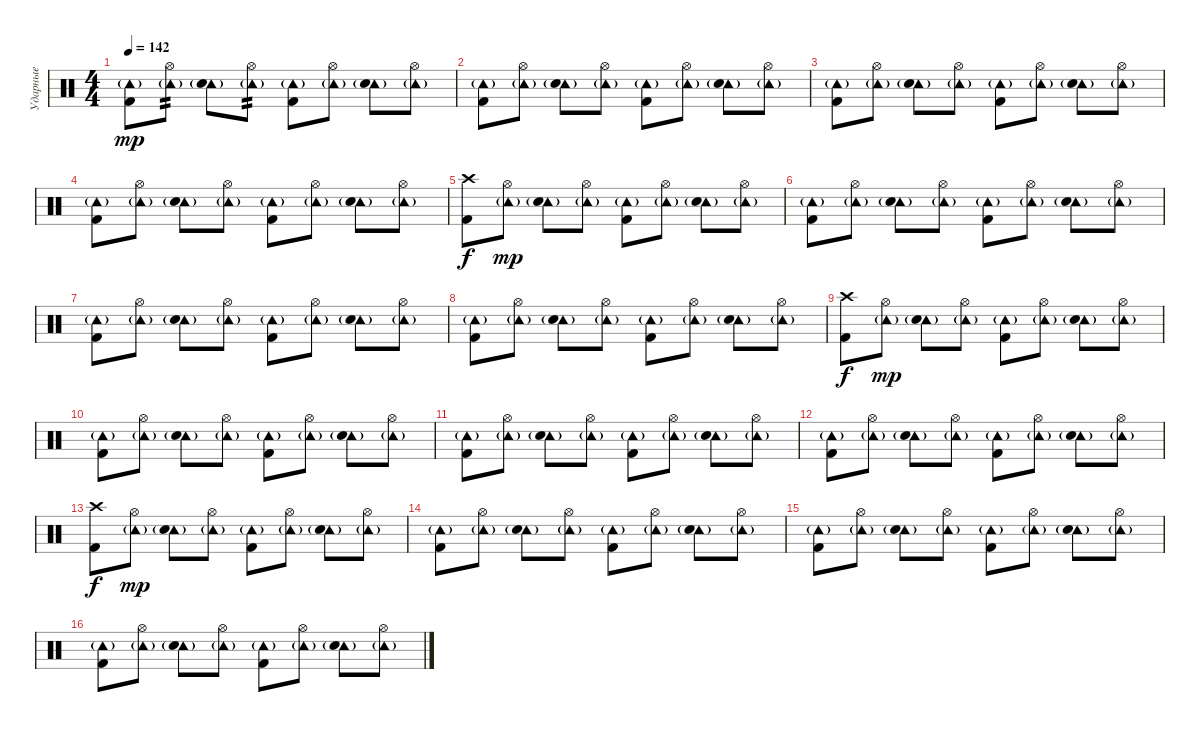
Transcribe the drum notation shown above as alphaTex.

\track ("Ударные" "Ударные") {instrument percussion}
\staff {score}
\articulation defaults
\ts (4 4)
\tempo 142
\clef neutral
\ks c
("Tambourine (hit)"{g} "Kick (hit) 2").8{dy mp} ("Tambourine (hit)"{g} "Hi-Hat (open)").8{tp 2} ("Tambourine (hit)"{g} "Electric Snare (hit)").8 ("Tambourine (hit)"{g} "Hi-Hat (open)").8{tp 2} ("Tambourine (hit)"{g} "Kick (hit) 2").8 ("Tambourine (hit)"{g} "Hi-Hat (open)").8 ("Tambourine (hit)"{g} "Electric Snare (hit)").8 ("Tambourine (hit)"{g} "Hi-Hat (open)").8 |
("Tambourine (hit)"{g} "Kick (hit) 2").8 ("Tambourine (hit)"{g} "Hi-Hat (open)").8 ("Tambourine (hit)"{g} "Electric Snare (hit)").8 ("Tambourine (hit)"{g} "Hi-Hat (open)").8 ("Tambourine (hit)"{g} "Kick (hit) 2").8 ("Tambourine (hit)"{g} "Hi-Hat (open)").8 ("Tambourine (hit)"{g} "Electric Snare (hit)").8 ("Tambourine (hit)"{g} "Hi-Hat (open)").8 |
("Tambourine (hit)"{g} "Kick (hit) 2").8 ("Tambourine (hit)"{g} "Hi-Hat (open)").8 ("Tambourine (hit)"{g} "Electric Snare (hit)").8 ("Tambourine (hit)"{g} "Hi-Hat (open)").8 ("Tambourine (hit)"{g} "Kick (hit) 2").8 ("Tambourine (hit)"{g} "Hi-Hat (open)").8 ("Tambourine (hit)"{g} "Electric Snare (hit)").8 ("Tambourine (hit)"{g} "Hi-Hat (open)").8 |
("Tambourine (hit)"{g} "Kick (hit) 2").8 ("Tambourine (hit)"{g} "Hi-Hat (open)").8 ("Tambourine (hit)"{g} "Electric Snare (hit)").8 ("Tambourine (hit)"{g} "Hi-Hat (open)").8 ("Tambourine (hit)"{g} "Kick (hit) 2").8 ("Tambourine (hit)"{g} "Hi-Hat (open)").8 ("Tambourine (hit)"{g} "Electric Snare (hit)").8 ("Tambourine (hit)"{g} "Hi-Hat (open)").8 |
("Crash high (hit)" "Kick (hit) 2").8{dy f} ("Tambourine (hit)"{g} "Hi-Hat (open)").8{dy mp} ("Tambourine (hit)"{g} "Electric Snare (hit)").8 ("Tambourine (hit)"{g} "Hi-Hat (open)").8 ("Tambourine (hit)"{g} "Kick (hit) 2").8 ("Tambourine (hit)"{g} "Hi-Hat (open)").8 ("Tambourine (hit)"{g} "Electric Snare (hit)").8 ("Tambourine (hit)"{g} "Hi-Hat (open)").8 |
("Tambourine (hit)"{g} "Kick (hit) 2").8 ("Tambourine (hit)"{g} "Hi-Hat (open)").8 ("Tambourine (hit)"{g} "Electric Snare (hit)").8 ("Tambourine (hit)"{g} "Hi-Hat (open)").8 ("Tambourine (hit)"{g} "Kick (hit) 2").8 ("Tambourine (hit)"{g} "Hi-Hat (open)").8 ("Tambourine (hit)"{g} "Electric Snare (hit)").8 ("Tambourine (hit)"{g} "Hi-Hat (open)").8 |
("Tambourine (hit)"{g} "Kick (hit) 2").8 ("Tambourine (hit)"{g} "Hi-Hat (open)").8 ("Tambourine (hit)"{g} "Electric Snare (hit)").8 ("Tambourine (hit)"{g} "Hi-Hat (open)").8 ("Tambourine (hit)"{g} "Kick (hit) 2").8 ("Tambourine (hit)"{g} "Hi-Hat (open)").8 ("Tambourine (hit)"{g} "Electric Snare (hit)").8 ("Tambourine (hit)"{g} "Hi-Hat (open)").8 |
("Tambourine (hit)"{g} "Kick (hit) 2").8 ("Tambourine (hit)"{g} "Hi-Hat (open)").8 ("Tambourine (hit)"{g} "Electric Snare (hit)").8 ("Tambourine (hit)"{g} "Hi-Hat (open)").8 ("Tambourine (hit)"{g} "Kick (hit) 2").8 ("Tambourine (hit)"{g} "Hi-Hat (open)").8 ("Tambourine (hit)"{g} "Electric Snare (hit)").8 ("Tambourine (hit)"{g} "Hi-Hat (open)").8 |
("Crash high (hit)" "Kick (hit) 2").8{dy f} ("Tambourine (hit)"{g} "Hi-Hat (open)").8{dy mp} ("Tambourine (hit)"{g} "Electric Snare (hit)").8 ("Tambourine (hit)"{g} "Hi-Hat (open)").8 ("Tambourine (hit)"{g} "Kick (hit) 2").8 ("Tambourine (hit)"{g} "Hi-Hat (open)").8 ("Tambourine (hit)"{g} "Electric Snare (hit)").8 ("Tambourine (hit)"{g} "Hi-Hat (open)").8 |
("Tambourine (hit)"{g} "Kick (hit) 2").8 ("Tambourine (hit)"{g} "Hi-Hat (open)").8 ("Tambourine (hit)"{g} "Electric Snare (hit)").8 ("Tambourine (hit)"{g} "Hi-Hat (open)").8 ("Tambourine (hit)"{g} "Kick (hit) 2").8 ("Tambourine (hit)"{g} "Hi-Hat (open)").8 ("Tambourine (hit)"{g} "Electric Snare (hit)").8 ("Tambourine (hit)"{g} "Hi-Hat (open)").8 |
("Tambourine (hit)"{g} "Kick (hit) 2").8 ("Tambourine (hit)"{g} "Hi-Hat (open)").8 ("Tambourine (hit)"{g} "Electric Snare (hit)").8 ("Tambourine (hit)"{g} "Hi-Hat (open)").8 ("Tambourine (hit)"{g} "Kick (hit) 2").8 ("Tambourine (hit)"{g} "Hi-Hat (open)").8 ("Tambourine (hit)"{g} "Electric Snare (hit)").8 ("Tambourine (hit)"{g} "Hi-Hat (open)").8 |
("Tambourine (hit)"{g} "Kick (hit) 2").8 ("Tambourine (hit)"{g} "Hi-Hat (open)").8 ("Tambourine (hit)"{g} "Electric Snare (hit)").8 ("Tambourine (hit)"{g} "Hi-Hat (open)").8 ("Tambourine (hit)"{g} "Kick (hit) 2").8 ("Tambourine (hit)"{g} "Hi-Hat (open)").8 ("Tambourine (hit)"{g} "Electric Snare (hit)").8 ("Tambourine (hit)"{g} "Hi-Hat (open)").8 |
("Crash high (hit)" "Kick (hit) 2").8{dy f} ("Tambourine (hit)"{g} "Hi-Hat (open)").8{dy mp} ("Tambourine (hit)"{g} "Electric Snare (hit)").8 ("Tambourine (hit)"{g} "Hi-Hat (open)").8 ("Tambourine (hit)"{g} "Kick (hit) 2").8 ("Tambourine (hit)"{g} "Hi-Hat (open)").8 ("Tambourine (hit)"{g} "Electric Snare (hit)").8 ("Tambourine (hit)"{g} "Hi-Hat (open)").8 |
("Tambourine (hit)"{g} "Kick (hit) 2").8 ("Tambourine (hit)"{g} "Hi-Hat (open)").8 ("Tambourine (hit)"{g} "Electric Snare (hit)").8 ("Tambourine (hit)"{g} "Hi-Hat (open)").8 ("Tambourine (hit)"{g} "Kick (hit) 2").8 ("Tambourine (hit)"{g} "Hi-Hat (open)").8 ("Tambourine (hit)"{g} "Electric Snare (hit)").8 ("Tambourine (hit)"{g} "Hi-Hat (open)").8 |
("Tambourine (hit)"{g} "Kick (hit) 2").8 ("Tambourine (hit)"{g} "Hi-Hat (open)").8 ("Tambourine (hit)"{g} "Electric Snare (hit)").8 ("Tambourine (hit)"{g} "Hi-Hat (open)").8 ("Tambourine (hit)"{g} "Kick (hit) 2").8 ("Tambourine (hit)"{g} "Hi-Hat (open)").8 ("Tambourine (hit)"{g} "Electric Snare (hit)").8 ("Tambourine (hit)"{g} "Hi-Hat (open)").8 |
("Tambourine (hit)"{g} "Kick (hit) 2").8 ("Tambourine (hit)"{g} "Hi-Hat (open)").8 ("Tambourine (hit)"{g} "Electric Snare (hit)").8 ("Tambourine (hit)"{g} "Hi-Hat (open)").8 ("Tambourine (hit)"{g} "Kick (hit) 2").8 ("Tambourine (hit)"{g} "Hi-Hat (open)").8 ("Tambourine (hit)"{g} "Electric Snare (hit)").8 ("Tambourine (hit)"{g} "Hi-Hat (open)").8
